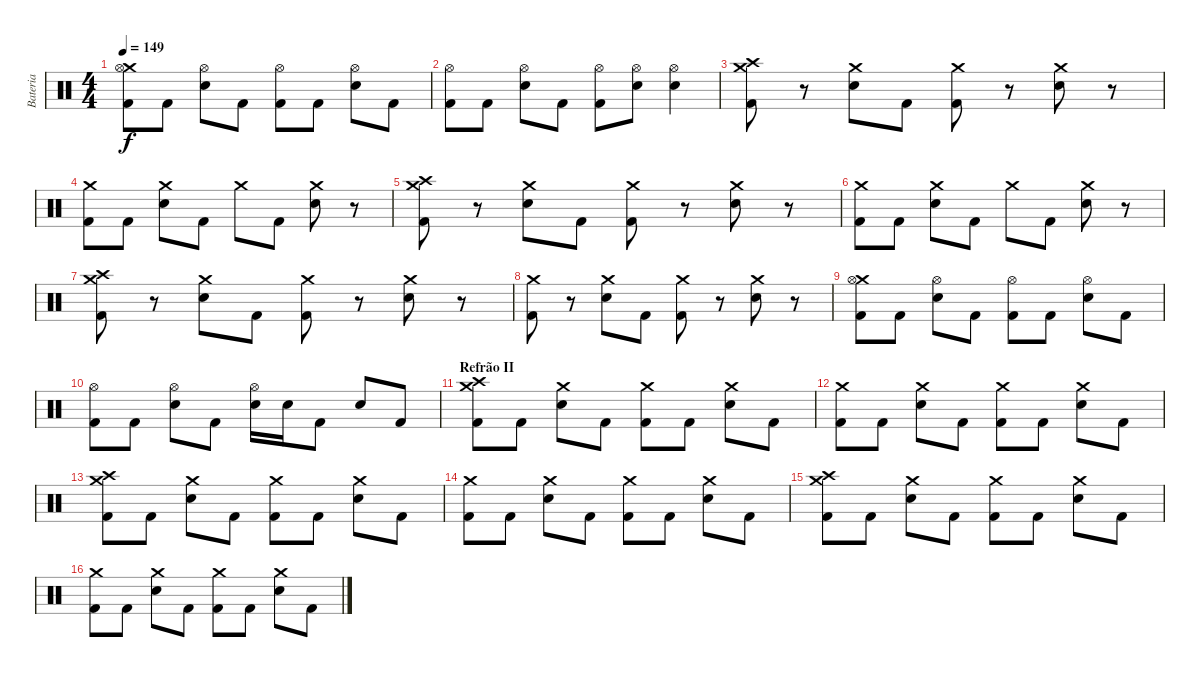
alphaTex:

\track ("Bateria" "Bateria") {instrument percussion}
\staff {score}
\articulation defaults
\ts (4 4)
\tempo 149
\clef neutral
\ks c
("Crash medium (hit)" "Hi-Hat (open)" "Kick (hit) 2").8{dy f} "Kick (hit) 2".8 ("Hi-Hat (open)" "Electric Snare (hit)").8 "Kick (hit) 2".8 ("Hi-Hat (open)" "Kick (hit) 2").8 "Kick (hit) 2".8 ("Hi-Hat (open)" "Electric Snare (hit)").8 "Kick (hit) 2".8 |
("Hi-Hat (open)" "Kick (hit) 2").8 "Kick (hit) 2".8 ("Hi-Hat (open)" "Electric Snare (hit)").8 "Kick (hit) 2".8 ("Hi-Hat (open)" "Kick (hit) 2").8 ("Hi-Hat (open)" "Electric Snare (hit)").8 ("Hi-Hat (open)" "Electric Snare (hit)").4 |
("Crash high (hit)" "Crash medium (hit)" "Kick (hit) 2").8 r.8 ("Crash medium (hit)" "Electric Snare (hit)").8 "Kick (hit) 2".8 ("Crash medium (hit)" "Kick (hit) 2").8 r.8 ("Crash medium (hit)" "Electric Snare (hit)").8 r.8 |
("Crash medium (hit)" "Kick (hit) 2").8 "Kick (hit) 2".8 ("Crash medium (hit)" "Electric Snare (hit)").8 "Kick (hit) 2".8 "Crash medium (hit)".8 "Kick (hit) 2".8 ("Crash medium (hit)" "Electric Snare (hit)").8 r.8 |
("Crash high (hit)" "Crash medium (hit)" "Kick (hit) 2").8 r.8 ("Crash medium (hit)" "Electric Snare (hit)").8 "Kick (hit) 2".8 ("Crash medium (hit)" "Kick (hit) 2").8 r.8 ("Crash medium (hit)" "Electric Snare (hit)").8 r.8 |
("Crash medium (hit)" "Kick (hit) 2").8 "Kick (hit) 2".8 ("Crash medium (hit)" "Electric Snare (hit)").8 "Kick (hit) 2".8 "Crash medium (hit)".8 "Kick (hit) 2".8 ("Crash medium (hit)" "Electric Snare (hit)").8 r.8 |
("Crash high (hit)" "Crash medium (hit)" "Kick (hit) 2").8 r.8 ("Crash medium (hit)" "Electric Snare (hit)").8 "Kick (hit) 2".8 ("Crash medium (hit)" "Kick (hit) 2").8 r.8 ("Crash medium (hit)" "Electric Snare (hit)").8 r.8 |
("Crash medium (hit)" "Kick (hit) 2").8 r.8 ("Crash medium (hit)" "Electric Snare (hit)").8 "Kick (hit) 2".8 ("Crash medium (hit)" "Kick (hit) 2").8 r.8 ("Crash medium (hit)" "Electric Snare (hit)").8 r.8 |
("Crash medium (hit)" "Hi-Hat (open)" "Kick (hit) 2").8 "Kick (hit) 2".8 ("Hi-Hat (open)" "Electric Snare (hit)").8 "Kick (hit) 2".8 ("Hi-Hat (open)" "Kick (hit) 2").8 "Kick (hit) 2".8 ("Hi-Hat (open)" "Electric Snare (hit)").8 "Kick (hit) 2".8 |
("Hi-Hat (open)" "Kick (hit) 2").8 "Kick (hit) 2".8 ("Hi-Hat (open)" "Electric Snare (hit)").8 "Kick (hit) 2".8 ("Hi-Hat (open)" "Electric Snare (hit)").16 "Electric Snare (hit)".16 "Kick (hit) 2".8 "Electric Snare (hit)".8 "Kick (hit) 2".8 |
\section ("" "Refrão II")
("Crash high (hit)" "Crash medium (hit)" "Kick (hit) 2").8 "Kick (hit) 2".8 ("Crash medium (hit)" "Electric Snare (hit)").8 "Kick (hit) 2".8 ("Crash medium (hit)" "Kick (hit) 2").8 "Kick (hit) 2".8 ("Crash medium (hit)" "Electric Snare (hit)").8 "Kick (hit) 2".8 |
("Crash medium (hit)" "Kick (hit) 2").8 "Kick (hit) 2".8 ("Crash medium (hit)" "Electric Snare (hit)").8 "Kick (hit) 2".8 ("Crash medium (hit)" "Kick (hit) 2").8 "Kick (hit) 2".8 ("Crash medium (hit)" "Electric Snare (hit)").8 "Kick (hit) 2".8 |
("Crash high (hit)" "Crash medium (hit)" "Kick (hit) 2").8 "Kick (hit) 2".8 ("Crash medium (hit)" "Electric Snare (hit)").8 "Kick (hit) 2".8 ("Crash medium (hit)" "Kick (hit) 2").8 "Kick (hit) 2".8 ("Crash medium (hit)" "Electric Snare (hit)").8 "Kick (hit) 2".8 |
("Crash medium (hit)" "Kick (hit) 2").8 "Kick (hit) 2".8 ("Crash medium (hit)" "Electric Snare (hit)").8 "Kick (hit) 2".8 ("Crash medium (hit)" "Kick (hit) 2").8 "Kick (hit) 2".8 ("Crash medium (hit)" "Electric Snare (hit)").8 "Kick (hit) 2".8 |
("Crash high (hit)" "Crash medium (hit)" "Kick (hit) 2").8 "Kick (hit) 2".8 ("Crash medium (hit)" "Electric Snare (hit)").8 "Kick (hit) 2".8 ("Crash medium (hit)" "Kick (hit) 2").8 "Kick (hit) 2".8 ("Crash medium (hit)" "Electric Snare (hit)").8 "Kick (hit) 2".8 |
("Crash medium (hit)" "Kick (hit) 2").8 "Kick (hit) 2".8 ("Crash medium (hit)" "Electric Snare (hit)").8 "Kick (hit) 2".8 ("Crash medium (hit)" "Kick (hit) 2").8 "Kick (hit) 2".8 ("Crash medium (hit)" "Electric Snare (hit)").8 "Kick (hit) 2".8
